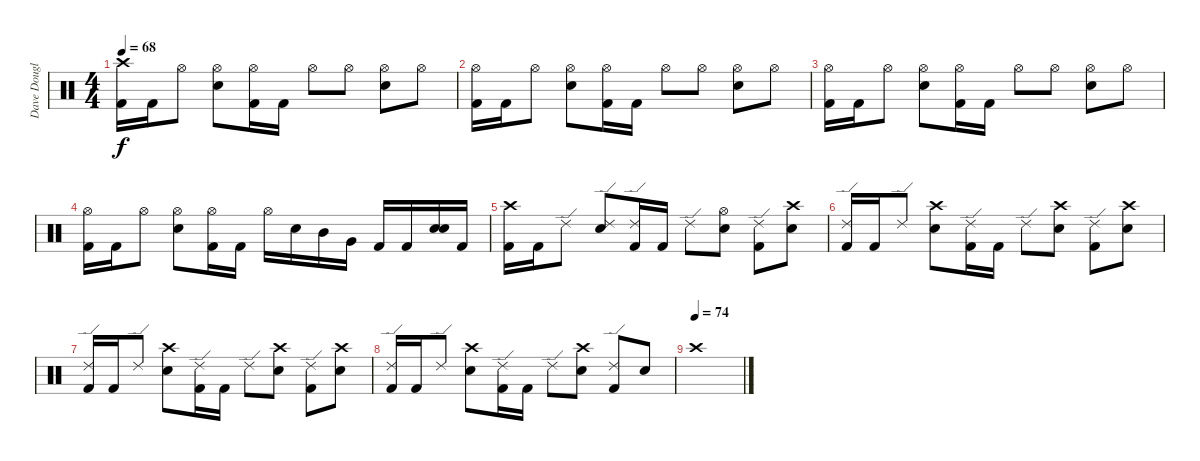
\track ("Dave Douglas - Drums" "Dave Dougl") {instrument percussion}
\staff {score}
\articulation defaults
\ts (4 4)
\tempo 68
\clef neutral
\ks c
("Crash high (hit)" "Kick (hit) 2").16{dy f} "Kick (hit) 2".16 "Hi-Hat (open)".8 ("Hi-Hat (open)" "Snare (hit) 2").8 ("Hi-Hat (open)" "Kick (hit) 2").16 "Kick (hit) 2".16 "Hi-Hat (open)".8 "Hi-Hat (open)".8 ("Hi-Hat (open)" "Snare (hit) 2").8 "Hi-Hat (open)".8 |
("Hi-Hat (open)" "Kick (hit) 2").16 "Kick (hit) 2".16 "Hi-Hat (open)".8 ("Hi-Hat (open)" "Snare (hit) 2").8 ("Hi-Hat (open)" "Kick (hit) 2").16 "Kick (hit) 2".16 "Hi-Hat (open)".8 "Hi-Hat (open)".8 ("Hi-Hat (open)" "Snare (hit) 2").8 "Hi-Hat (open)".8 |
("Hi-Hat (open)" "Kick (hit) 2").16 "Kick (hit) 2".16 "Hi-Hat (open)".8 ("Hi-Hat (open)" "Snare (hit) 2").8 ("Hi-Hat (open)" "Kick (hit) 2").16 "Kick (hit) 2".16 "Hi-Hat (open)".8 "Hi-Hat (open)".8 ("Hi-Hat (open)" "Snare (hit) 2").8 "Hi-Hat (open)".8 |
("Hi-Hat (open)" "Kick (hit) 2").16 "Kick (hit) 2".16 "Hi-Hat (open)".8 ("Hi-Hat (open)" "Snare (hit) 2").8 ("Hi-Hat (open)" "Kick (hit) 2").16 "Kick (hit) 2".16 "Hi-Hat (open)".16 "Snare (hit) 2".16 "Mid Tom (hit)".16 "Very Low Tom (hit)".16 "Kick (hit) 2".16 "Kick (hit) 2".16 ("Snare (hit) 2" "Snare (hit) 2").16{bd 240} "Kick (hit) 2".16 |
("Crash high (hit)" "Kick (hit) 2").16 "Kick (hit) 2".16 "Ride (edge) 2".8 ("Ride (edge) 2" "Snare (hit) 2").8 ("Ride (edge) 2" "Kick (hit) 2").16 "Kick (hit) 2".16 "Ride (edge) 2".8 ("Hi-Hat (open)" "Snare (hit) 2").8 ("Ride (edge) 2" "Kick (hit) 2").8 ("Crash high (hit)" "Snare (hit) 2").8 |
("Ride (edge) 2" "Kick (hit) 2").16 "Kick (hit) 2".16 "Ride (edge) 2".8 ("Crash high (hit)" "Snare (hit) 2").8 ("Ride (edge) 2" "Kick (hit) 2").16 "Kick (hit) 2".16 "Ride (edge) 2".8 ("Crash high (hit)" "Snare (hit) 2").8 ("Ride (edge) 2" "Kick (hit) 2").8 ("Crash high (hit)" "Snare (hit) 2").8 |
("Ride (edge) 2" "Kick (hit) 2").16 "Kick (hit) 2".16 "Ride (edge) 2".8 ("Crash high (hit)" "Snare (hit) 2").8 ("Ride (edge) 2" "Kick (hit) 2").16 "Kick (hit) 2".16 "Ride (edge) 2".8 ("Crash high (hit)" "Snare (hit) 2").8 ("Ride (edge) 2" "Kick (hit) 2").8 ("Crash high (hit)" "Snare (hit) 2").8 |
("Ride (edge) 2" "Kick (hit) 2").16 "Kick (hit) 2".16 "Ride (edge) 2".8 ("Crash high (hit)" "Snare (hit) 2").8 ("Ride (edge) 2" "Kick (hit) 2").16 "Kick (hit) 2".16 "Ride (edge) 2".8 ("Crash high (hit)" "Snare (hit) 2").8 ("Ride (edge) 2" "Kick (hit) 2").8 "Snare (hit) 2".8 |
\tempo (74)
"Crash high (hit)".1
